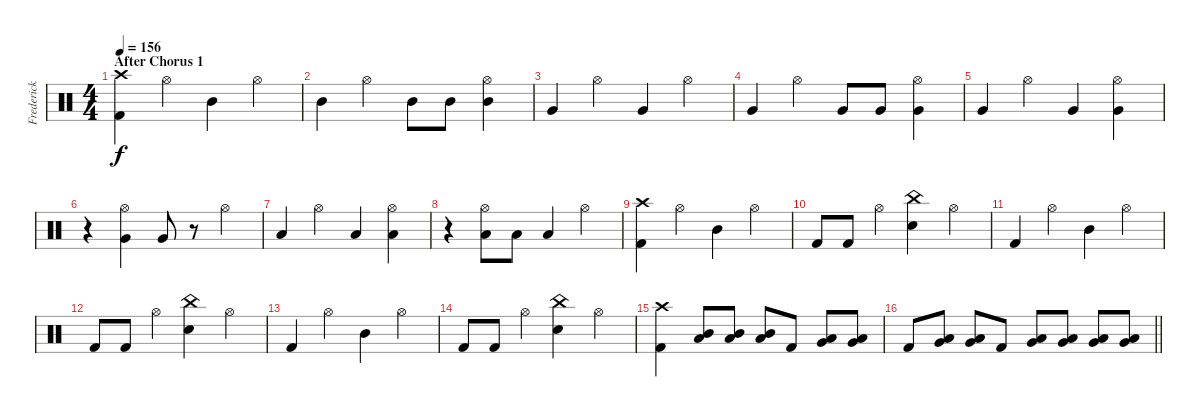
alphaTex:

\track ("Frederick Ehmke" "Frederick ") {instrument percussion}
\staff {score}
\articulation defaults
\ts (4 4)
\section ("" "After Chorus 1")
\tempo 156
\clef neutral
\ks c
("Crash high (hit)" "Kick (hit) 2").4{dy f volume 10} "Hi-Hat (open)".4 "Mid Tom (hit)".4 "Hi-Hat (open)".4 |
"Mid Tom (hit)".4 "Hi-Hat (open)".4 "Mid Tom (hit)".8 "Mid Tom (hit)".8 ("Hi-Hat (open)" "Mid Tom (hit)").4 |
"Very Low Tom (hit)".4 "Hi-Hat (open)".4 "Very Low Tom (hit)".4 "Hi-Hat (open)".4 |
"Very Low Tom (hit)".4 "Hi-Hat (open)".4 "Very Low Tom (hit)".8 "Very Low Tom (hit)".8 ("Hi-Hat (open)" "Very Low Tom (hit)").4 |
"Very Low Tom (hit)".4 "Hi-Hat (open)".4 "Very Low Tom (hit)".4 ("Hi-Hat (open)" "Very Low Tom (hit)").4 |
r.4 ("Hi-Hat (open)" "Very Low Tom (hit)").4 "Very Low Tom (hit)".8 r.8 "Hi-Hat (open)".4 |
"Low Floor Tom (hit)".4 "Hi-Hat (open)".4 "Low Floor Tom (hit)".4 ("Hi-Hat (open)" "Low Floor Tom (hit)").4 |
r.4 ("Hi-Hat (open)" "Low Floor Tom (hit)").8 "Low Floor Tom (hit)".8 "Low Floor Tom (hit)".4 "Hi-Hat (open)".4 |
("Crash high (hit)" "Kick (hit) 2").4{volume 13} "Hi-Hat (open)".4 "Mid Tom (hit)".4 "Hi-Hat (open)".4 |
"Kick (hit) 2".8 "Kick (hit) 2".8 "Hi-Hat (open)".4 ("China (hit)" "Electric Snare (hit)").4 "Hi-Hat (open)".4 |
"Kick (hit) 2".4 "Hi-Hat (open)".4 "Mid Tom (hit)".4 "Hi-Hat (open)".4 |
"Kick (hit) 2".8 "Kick (hit) 2".8 "Hi-Hat (open)".4 ("China (hit)" "Electric Snare (hit)").4 "Hi-Hat (open)".4 |
"Kick (hit) 2".4 "Hi-Hat (open)".4 "Mid Tom (hit)".4 "Hi-Hat (open)".4 |
"Kick (hit) 2".8 "Kick (hit) 2".8 "Hi-Hat (open)".4 ("China (hit)" "Electric Snare (hit)").4 "Hi-Hat (open)".4 |
("Crash high (hit)" "Kick (hit) 2").4 ("Low Tom (hit)" "Mid Tom (hit)").8 ("Low Tom (hit)" "Mid Tom (hit)").8 ("Low Tom (hit)" "Mid Tom (hit)").8 "Kick (hit) 2".8 ("Low Tom (hit)" "Very Low Tom (hit)").8 ("Low Tom (hit)" "Very Low Tom (hit)").8 |
\barLineRight lightlight "Kick (hit) 2".8
("Very Low Tom (hit)" "Low Floor Tom (hit)").8 ("Very Low Tom (hit)" "Low Floor Tom (hit)").8 "Kick (hit) 2".8 ("Very Low Tom (hit)" "Low Floor Tom (hit)").8 ("Very Low Tom (hit)" "Low Floor Tom (hit)").8 ("Very Low Tom (hit)" "Low Floor Tom (hit)").8 ("Very Low Tom (hit)" "Low Floor Tom (hit)").8
